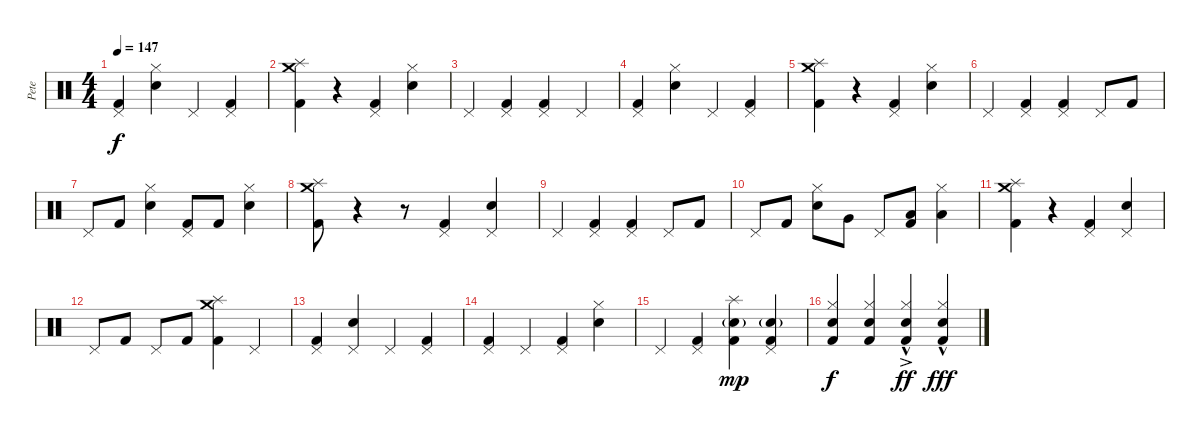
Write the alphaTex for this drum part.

\track ("Pete" "Pete") {instrument percussion}
\staff {score}
\articulation defaults
\ts (4 4)
\tempo 147
\clef neutral
\ks c
("Pedal Hi-Hat (hit)" "Kick (hit) 2").4{dy f} ("Hi-Hat (closed)" "Electric Snare (hit)").4 "Pedal Hi-Hat (hit)".4 ("Pedal Hi-Hat (hit)" "Kick (hit) 2").4 |
("Crash medium (hit)" "Splash (hit)" "Kick (hit) 2").4 r.4 ("Pedal Hi-Hat (hit)" "Kick (hit) 2").4 ("Hi-Hat (closed)" "Electric Snare (hit)").4 |
"Pedal Hi-Hat (hit)".4 ("Pedal Hi-Hat (hit)" "Kick (hit) 2").4 ("Pedal Hi-Hat (hit)" "Kick (hit) 2").4 "Pedal Hi-Hat (hit)".4 |
("Pedal Hi-Hat (hit)" "Kick (hit) 2").4 ("Hi-Hat (closed)" "Electric Snare (hit)").4 "Pedal Hi-Hat (hit)".4 ("Pedal Hi-Hat (hit)" "Kick (hit) 2").4 |
("Crash medium (hit)" "Splash (hit)" "Kick (hit) 2").4 r.4 ("Pedal Hi-Hat (hit)" "Kick (hit) 2").4 ("Hi-Hat (closed)" "Electric Snare (hit)").4 |
"Pedal Hi-Hat (hit)".4 ("Pedal Hi-Hat (hit)" "Kick (hit) 2").4 ("Pedal Hi-Hat (hit)" "Kick (hit) 2").4 "Pedal Hi-Hat (hit)".8 "Kick (hit) 2".8 |
"Pedal Hi-Hat (hit)".8 "Kick (hit) 2".8 ("Hi-Hat (closed)" "Electric Snare (hit)").4 ("Pedal Hi-Hat (hit)" "Kick (hit) 2").8 "Kick (hit) 2".8 ("Hi-Hat (closed)" "Electric Snare (hit)").4 |
("Crash medium (hit)" "Splash (hit)" "Kick (hit) 2").8 r.4 r.8 ("Pedal Hi-Hat (hit)" "Kick (hit) 2").4 ("Pedal Hi-Hat (hit)" "Electric Snare (hit)").4 |
"Pedal Hi-Hat (hit)".4 ("Pedal Hi-Hat (hit)" "Kick (hit) 2").4 ("Pedal Hi-Hat (hit)" "Kick (hit) 2").4 "Pedal Hi-Hat (hit)".8 "Kick (hit) 2".8 |
"Pedal Hi-Hat (hit)".8 "Kick (hit) 2".8 ("Hi-Hat (closed)" "Electric Snare (hit)").8 "Very Low Tom (hit)".8 "Pedal Hi-Hat (hit)".8 ("Low Floor Tom (hit)" "Kick (hit) 2").8 ("Hi-Hat (closed)" "Low Floor Tom (hit)").4 |
("Crash medium (hit)" "Splash (hit)" "Kick (hit) 2").4 r.4 ("Pedal Hi-Hat (hit)" "Kick (hit) 2").4 ("Pedal Hi-Hat (hit)" "Electric Snare (hit)").4 |
"Pedal Hi-Hat (hit)".8 "Kick (hit) 2".8 "Pedal Hi-Hat (hit)".8 "Kick (hit) 2".8 ("Crash medium (hit)" "Splash (hit)" "Kick (hit) 2").4 "Pedal Hi-Hat (hit)".4 |
("Pedal Hi-Hat (hit)" "Kick (hit) 2").4 ("Pedal Hi-Hat (hit)" "Electric Snare (hit)").4 "Pedal Hi-Hat (hit)".4 ("Pedal Hi-Hat (hit)" "Kick (hit) 2").4 |
("Pedal Hi-Hat (hit)" "Kick (hit) 2").4 "Pedal Hi-Hat (hit)".4 ("Pedal Hi-Hat (hit)" "Kick (hit) 2").4 ("Hi-Hat (closed)" "Electric Snare (hit)").4 |
"Pedal Hi-Hat (hit)".4 ("Pedal Hi-Hat (hit)" "Kick (hit) 2").4 ("Splash (hit)" "Electric Snare (hit)"{g} "Kick (hit) 2").4{dy mp} ("Pedal Hi-Hat (hit)" "Electric Snare (hit)"{g} "Kick (hit) 2").4 |
("Hi-Hat (closed)" "Electric Snare (hit)" "Kick (hit) 2").4{dy f} ("Hi-Hat (closed)" "Electric Snare (hit)" "Kick (hit) 2").4 ("Hi-Hat (closed)"{hac} "Electric Snare (hit)"{ac} "Kick (hit) 2").4{dy ff} ("Hi-Hat (closed)"{hac} "Electric Snare (hit)"{hac} "Kick (hit) 2").4{dy fff}
